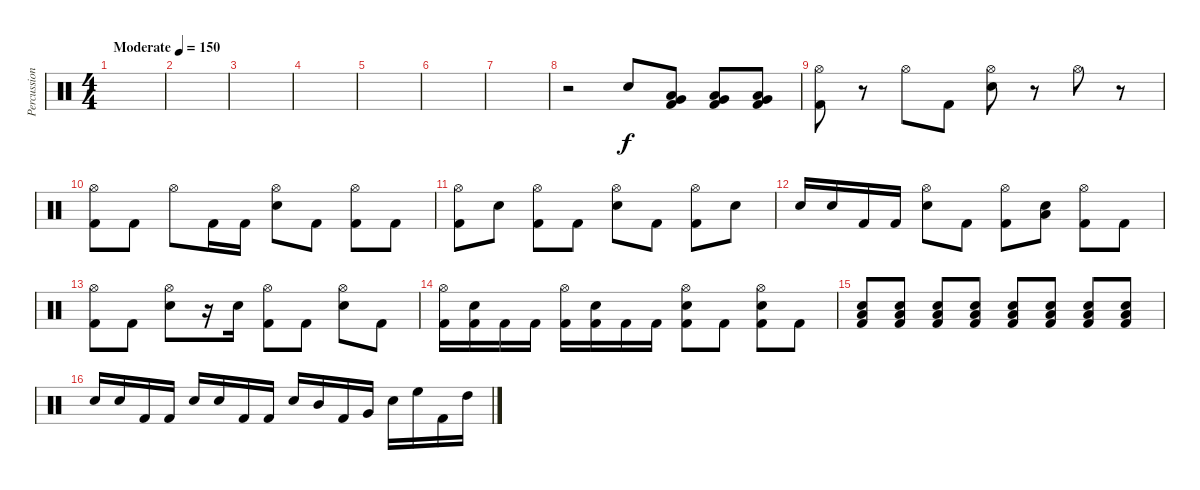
\track ("Percussion" "Percussion") {instrument percussion}
\staff {score}
\articulation defaults
\ts (4 4)
\tempo (150 "Moderate")
\clef neutral
\ks c
|
|
|
|
|
|
|
r.2 "Electric Snare (hit)".8 ("Very Low Tom (hit)" "Low Tom (hit)" "Kick (hit) 2").8 ("Very Low Tom (hit)" "Low Tom (hit)" "Kick (hit) 2").8 ("Very Low Tom (hit)" "Low Tom (hit)" "Kick (hit) 2").8 |
("Hi-Hat (open)" "Kick (hit) 2").8 r.8 "Hi-Hat (open)".8 "Kick (hit) 2".8 ("Hi-Hat (open)" "Electric Snare (hit)").8 r.8 "Hi-Hat (open)".8 r.8 |
("Hi-Hat (open)" "Kick (hit) 2").8 "Kick (hit) 2".8 "Hi-Hat (open)".8 "Kick (hit) 2".16 "Kick (hit) 2".16 ("Hi-Hat (open)" "Electric Snare (hit)").8 "Kick (hit) 2".8 ("Hi-Hat (open)" "Kick (hit) 2").8 "Kick (hit) 2".8 |
("Hi-Hat (open)" "Kick (hit) 2").8 "Electric Snare (hit)".8 ("Hi-Hat (open)" "Kick (hit) 2").8 "Kick (hit) 2".8 ("Hi-Hat (open)" "Electric Snare (hit)").8 "Kick (hit) 2".8 ("Hi-Hat (open)" "Kick (hit) 2").8 "Electric Snare (hit)".8 |
"Electric Snare (hit)".16 "Electric Snare (hit)".16 "Kick (hit) 2".16 "Kick (hit) 2".16 ("Hi-Hat (open)" "Electric Snare (hit)").8 "Kick (hit) 2".8 ("Hi-Hat (open)" "Kick (hit) 2").8 ("Low Tom (hit)" "Electric Snare (hit)").8 ("Hi-Hat (open)" "Kick (hit) 2").8 "Kick (hit) 2".8 |
("Hi-Hat (open)" "Kick (hit) 2").8 "Kick (hit) 2".8 ("Hi-Hat (open)" "Electric Snare (hit)").8 r.16 "Electric Snare (hit)".16 ("Hi-Hat (open)" "Kick (hit) 2").8 "Kick (hit) 2".8 ("Hi-Hat (open)" "Electric Snare (hit)").8 "Kick (hit) 2".8 |
("Hi-Hat (open)" "Kick (hit) 2").16 ("Electric Snare (hit)" "Kick (hit) 2").16 "Kick (hit) 2".16 "Kick (hit) 2".16 ("Hi-Hat (open)" "Kick (hit) 2").16 ("Electric Snare (hit)" "Kick (hit) 2").16 "Kick (hit) 2".16 "Kick (hit) 2".16 ("Hi-Hat (open)" "Electric Snare (hit)" "Kick (hit) 2").8 "Kick (hit) 2".8 ("Hi-Hat (open)" "Electric Snare (hit)" "Kick (hit) 2").8 "Kick (hit) 2".8 |
("Low Tom (hit)" "Electric Snare (hit)" "Kick (hit) 2").8 ("Low Tom (hit)" "Electric Snare (hit)" "Kick (hit) 2").8 ("Low Tom (hit)" "Electric Snare (hit)" "Kick (hit) 2").8 ("Low Tom (hit)" "Electric Snare (hit)" "Kick (hit) 2").8 ("Low Tom (hit)" "Electric Snare (hit)" "Kick (hit) 2").8 ("Low Tom (hit)" "Electric Snare (hit)" "Kick (hit) 2").8 ("Low Tom (hit)" "Electric Snare (hit)" "Kick (hit) 2").8 ("Low Tom (hit)" "Electric Snare (hit)" "Kick (hit) 2").8 |
"Electric Snare (hit)".16 "Electric Snare (hit)".16 "Kick (hit) 2".16 "Kick (hit) 2".16 "Electric Snare (hit)".16 "Electric Snare (hit)".16 "Kick (hit) 2".16 "Kick (hit) 2".16 "Electric Snare (hit)".16 "Mid Tom (hit)".16 "Kick (hit) 2".16 "Very Low Tom (hit)".16 "Electric Snare (hit)".16 "High Floor Tom (hit)".16 "Kick (hit) 2".16 "High Tom (hit)".16
